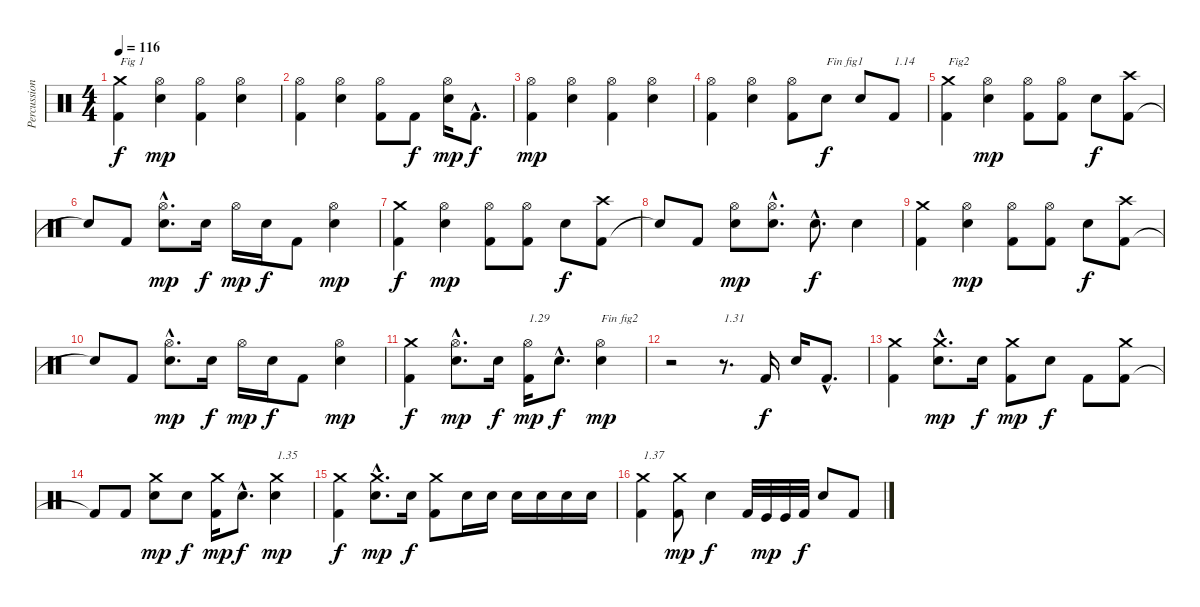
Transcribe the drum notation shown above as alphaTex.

\track ("Percussions" "Percussion") {instrument percussion}
\staff {score}
\articulation defaults
\ts (4 4)
\tempo 116
\clef neutral
\ks c
("Kick (hit) 2" "Crash medium (hit)").4{txt "Fig 1" dy f} ("Electric Snare (hit)" "Hi-Hat (open)").4{dy mp} ("Kick (hit) 2" "Hi-Hat (open)").4 ("Electric Snare (hit)" "Hi-Hat (open)").4 |
("Kick (hit) 2" "Hi-Hat (open)").4 ("Electric Snare (hit)" "Hi-Hat (open)").4 ("Kick (hit) 2" "Hi-Hat (open)").8 "Kick (hit) 2".8{dy f} ("Electric Snare (hit)" "Hi-Hat (open)").16{dy mp} "Kick (hit) 2"{hac}.8{d dy f} |
("Kick (hit) 2" "Hi-Hat (open)").4{dy mp} ("Electric Snare (hit)" "Hi-Hat (open)").4 ("Kick (hit) 2" "Hi-Hat (open)").4 ("Electric Snare (hit)" "Hi-Hat (open)").4 |
("Kick (hit) 2" "Hi-Hat (open)").4 ("Electric Snare (hit)" "Hi-Hat (open)").4 ("Kick (hit) 2" "Hi-Hat (open)").8 "Electric Snare (hit)".8{txt "Fin fig1" dy f} "Electric Snare (hit)".8 "Kick (hit) 2".8{txt "1.14"} |
("Kick (hit) 2" "Crash medium (hit)").4{txt "Fig2"} ("Electric Snare (hit)" "Hi-Hat (open)").4{dy mp} ("Kick (hit) 2" "Hi-Hat (open)").8 ("Kick (hit) 2" "Hi-Hat (open)").8 "Electric Snare (hit)".8{dy f} ("Kick (hit) 2" "Crash high (hit)").8 |
"Snare (hit)"{t}.8 "Kick (hit) 2".8 ("Electric Snare (hit)"{hac} "Hi-Hat (open)"{hac}).8{d dy mp} "Electric Snare (hit)".16{dy f} "Hi-Hat (open)".16{dy mp} "Electric Snare (hit)".16{dy f} "Kick (hit) 2".8 ("Electric Snare (hit)" "Hi-Hat (open)").4{dy mp} |
("Kick (hit) 2" "Crash medium (hit)").4{dy f} ("Electric Snare (hit)" "Hi-Hat (open)").4{dy mp} ("Kick (hit) 2" "Hi-Hat (open)").8 ("Kick (hit) 2" "Hi-Hat (open)").8 "Electric Snare (hit)".8{dy f} ("Kick (hit) 2" "Crash high (hit)").8 |
"Snare (hit)"{t}.8 "Kick (hit) 2".8 ("Electric Snare (hit)" "Hi-Hat (open)").8{dy mp} ("Electric Snare (hit)"{hac} "Hi-Hat (open)"{hac}).8{d} "Electric Snare (hit)"{hac}.8{d dy f} "Electric Snare (hit)".4 |
("Kick (hit) 2" "Crash medium (hit)").4 ("Electric Snare (hit)" "Hi-Hat (open)").4{dy mp} ("Kick (hit) 2" "Hi-Hat (open)").8 ("Kick (hit) 2" "Hi-Hat (open)").8 "Electric Snare (hit)".8{dy f} ("Kick (hit) 2" "Crash high (hit)").8 |
"Snare (hit)"{t}.8 "Kick (hit) 2".8 ("Electric Snare (hit)"{hac} "Hi-Hat (open)"{hac}).8{d dy mp} "Electric Snare (hit)".16{dy f} "Hi-Hat (open)".16{dy mp} "Electric Snare (hit)".16{dy f} "Kick (hit) 2".8 ("Electric Snare (hit)" "Hi-Hat (open)").4{dy mp} |
("Kick (hit) 2" "Crash medium (hit)").4{dy f} ("Electric Snare (hit)"{hac} "Hi-Hat (open)"{hac}).8{d dy mp} "Electric Snare (hit)".16{dy f} ("Kick (hit) 2" "Hi-Hat (open)").16{txt "1.29" dy mp} "Electric Snare (hit)"{hac}.8{d dy f} ("Electric Snare (hit)" "Hi-Hat (open)").4{txt "Fin fig2" dy mp} |
r.2 r.8{d txt "1.31"} "Kick (hit) 2".16{dy f} "Electric Snare (hit)".16 "Kick (hit) 2"{hac}.8{d} |
("Kick (hit) 2" "Crash medium (hit)").4 ("Electric Snare (hit)"{hac} "Crash medium (hit)"{hac}).8{d dy mp} "Electric Snare (hit)".16{dy f} ("Kick (hit) 2" "Crash medium (hit)").8{dy mp} "Electric Snare (hit)".8{dy f} "Kick (hit) 2".8 ("Kick (hit) 2" "Crash medium (hit)").8 |
"Kick (hit) 2"{t}.8 "Kick (hit) 2".8 ("Electric Snare (hit)" "Crash medium (hit)").8{dy mp} "Electric Snare (hit)".8{dy f} ("Kick (hit) 2" "Crash medium (hit)").16{dy mp} "Electric Snare (hit)"{hac}.8{d dy f} ("Electric Snare (hit)" "Crash medium (hit)").4{txt "1.35" dy mp} |
("Kick (hit) 2" "Crash medium (hit)").4{dy f} ("Electric Snare (hit)"{hac} "Crash medium (hit)"{hac}).8{d dy mp} "Electric Snare (hit)".16{dy f} ("Kick (hit) 2" "Crash medium (hit)").8 "Electric Snare (hit)".16 "Electric Snare (hit)".16 "Electric Snare (hit)".16 "Electric Snare (hit)".16 "Electric Snare (hit)".16 "Electric Snare (hit)".16 |
("Kick (hit) 2" "Crash medium (hit)").4{txt "1.37"} ("Kick (hit) 2" "Crash medium (hit)").8{dy mp} "Electric Snare (hit)".4{dy f} "Kick (hit) 2".32 "Kick (hit)".32{dy mp} "Kick (hit)".32 "Kick (hit) 2".32{dy f} "Electric Snare (hit)".8 "Kick (hit) 2".8
